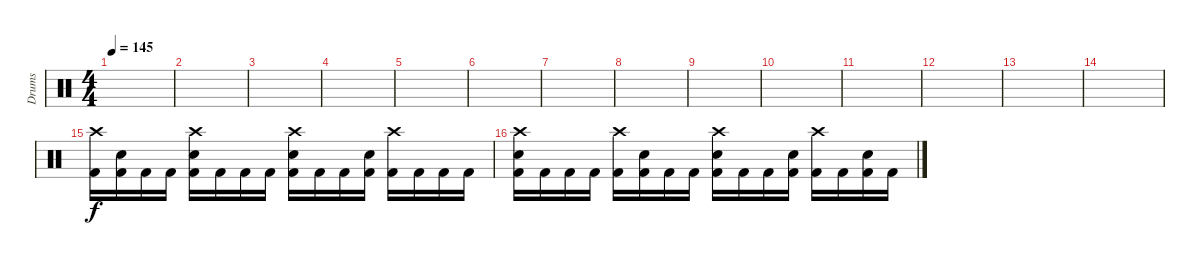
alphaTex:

\track ("Drums" "Drums") {instrument percussion}
\staff {score}
\articulation defaults
\ts (4 4)
\tempo 145
\clef neutral
\ks c
|
|
|
|
|
|
|
|
|
|
|
|
|
|
("Crash high (hit)" "Kick (hit) 2").16 ("Snare (hit) 2" "Kick (hit) 2").16 "Kick (hit) 2".16 "Kick (hit) 2".16 ("Crash high (hit)" "Snare (hit) 2" "Kick (hit) 2").16 "Kick (hit) 2".16 "Kick (hit) 2".16 "Kick (hit) 2".16 ("Crash high (hit)" "Snare (hit) 2" "Kick (hit) 2").16 "Kick (hit) 2".16 "Kick (hit) 2".16 ("Snare (hit) 2" "Kick (hit) 2").16 ("Crash high (hit)" "Kick (hit) 2").16 "Kick (hit) 2".16 "Kick (hit) 2".16 "Kick (hit) 2".16 |
("Crash high (hit)" "Snare (hit) 2" "Kick (hit) 2").16 "Kick (hit) 2".16 "Kick (hit) 2".16 "Kick (hit) 2".16 ("Crash high (hit)" "Kick (hit) 2").16 ("Snare (hit) 2" "Kick (hit) 2").16 "Kick (hit) 2".16 "Kick (hit) 2".16 ("Crash high (hit)" "Snare (hit) 2" "Kick (hit) 2").16 "Kick (hit) 2".16 "Kick (hit) 2".16 ("Snare (hit) 2" "Kick (hit) 2").16 ("Crash high (hit)" "Kick (hit) 2").16 "Kick (hit) 2".16 ("Snare (hit) 2" "Kick (hit) 2").16 "Kick (hit) 2".16
